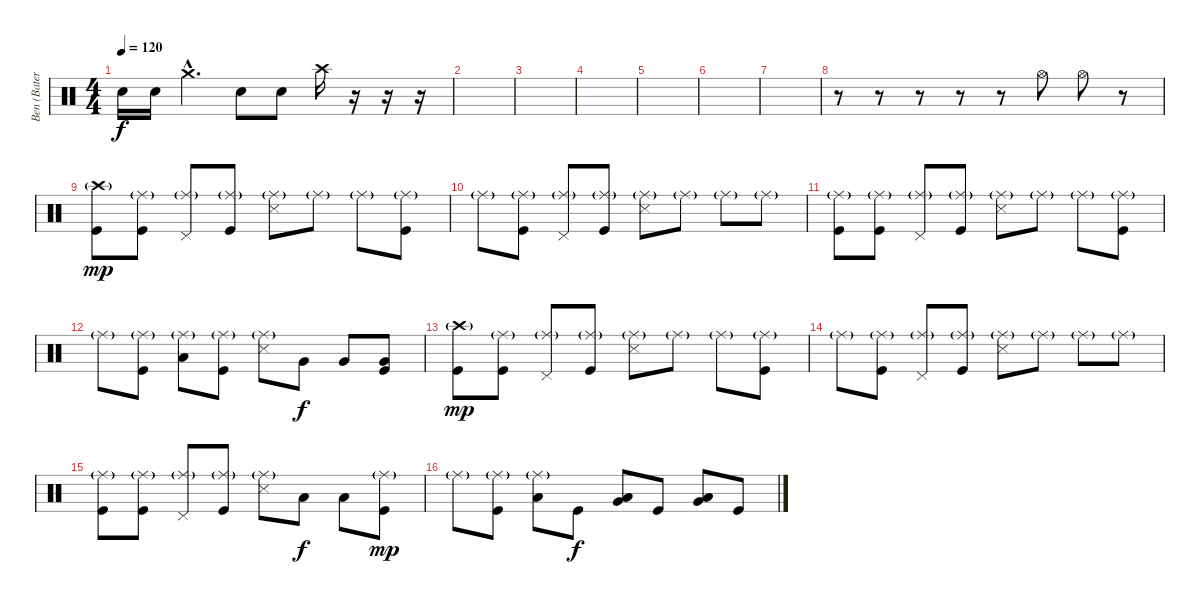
\track ("Ben (Bateria)" "Ben (Bater") {instrument percussion}
\staff {score}
\articulation defaults
\ts (4 4)
\tempo 120
\clef neutral
\ks c "Snare (hit) 2".16{dy f} "Snare (hit) 2".16 "Crash medium (hit)"{hac}.4{d} "Snare (hit) 2".8 "Snare (hit) 2".8 "Crash high (hit)".16
r.16 r.16 r.16 |
|
|
|
|
|
|
r.8 r.8 r.8 r.8 r.8 "Hi-Hat (open)".8 "Hi-Hat (open)".8 r.8 |
("Kick (hit)" "Crash high (hit)"{g}).8{dy mp} ("Kick (hit)" "Ride (middle)"{g}).8 ("Pedal Hi-Hat (hit)" "Ride (middle)"{g}).8 ("Kick (hit)" "Ride (middle)"{g}).8 ("Snare (side stick) 3" "Ride (middle)"{g}).8 "Ride (middle)"{g}.8 "Ride (middle)"{g}.8 ("Kick (hit)" "Ride (middle)"{g}).8 |
"Ride (middle)"{g}.8 ("Kick (hit)" "Ride (middle)"{g}).8 ("Pedal Hi-Hat (hit)" "Ride (middle)"{g}).8 ("Kick (hit)" "Ride (middle)"{g}).8 ("Snare (side stick) 3" "Ride (middle)"{g}).8 "Ride (middle)"{g}.8 "Ride (middle)"{g}.8 "Ride (middle)"{g}.8 |
("Kick (hit)" "Ride (middle)"{g}).8 ("Kick (hit)" "Ride (middle)"{g}).8 ("Pedal Hi-Hat (hit)" "Ride (middle)"{g}).8 ("Kick (hit)" "Ride (middle)"{g}).8 ("Snare (side stick) 3" "Ride (middle)"{g}).8 "Ride (middle)"{g}.8 "Ride (middle)"{g}.8 ("Kick (hit)" "Ride (middle)"{g}).8 |
"Ride (middle)"{g}.8 ("Kick (hit)" "Ride (middle)"{g}).8 ("Low Tom (hit)" "Ride (middle)"{g}).8 ("Kick (hit)" "Ride (middle)"{g}).8 ("Snare (side stick) 3" "Ride (middle)"{g}).8 "Very Low Tom (hit)".8{dy f} "Very Low Tom (hit)".8 ("Kick (hit)" "Very Low Tom (hit)").8 |
("Kick (hit)" "Crash high (hit)"{g}).8{dy mp} ("Kick (hit)" "Ride (middle)"{g}).8 ("Pedal Hi-Hat (hit)" "Ride (middle)"{g}).8 ("Kick (hit)" "Ride (middle)"{g}).8 ("Snare (side stick) 3" "Ride (middle)"{g}).8 "Ride (middle)"{g}.8 "Ride (middle)"{g}.8 ("Kick (hit)" "Ride (middle)"{g}).8 |
"Ride (middle)"{g}.8 ("Kick (hit)" "Ride (middle)"{g}).8 ("Pedal Hi-Hat (hit)" "Ride (middle)"{g}).8 ("Kick (hit)" "Ride (middle)"{g}).8 ("Snare (side stick) 3" "Ride (middle)"{g}).8 "Ride (middle)"{g}.8 "Ride (middle)"{g}.8 "Ride (middle)"{g}.8 |
("Kick (hit)" "Ride (middle)"{g}).8 ("Kick (hit)" "Ride (middle)"{g}).8 ("Pedal Hi-Hat (hit)" "Ride (middle)"{g}).8 ("Kick (hit)" "Ride (middle)"{g}).8 ("Snare (side stick) 3" "Ride (middle)"{g}).8 "Low Tom (hit)".8{dy f} "Low Tom (hit)".8 ("Kick (hit)" "Ride (middle)"{g}).8{dy mp} |
"Ride (middle)"{g}.8 ("Kick (hit)" "Ride (middle)"{g}).8 ("Low Tom (hit)" "Ride (middle)"{g}).8 "Kick (hit)".8{dy f} ("Low Floor Tom (hit)" "Very Low Tom (hit)").8 "Kick (hit)".8 ("Low Floor Tom (hit)" "Very Low Tom (hit)").8 "Kick (hit)".8
